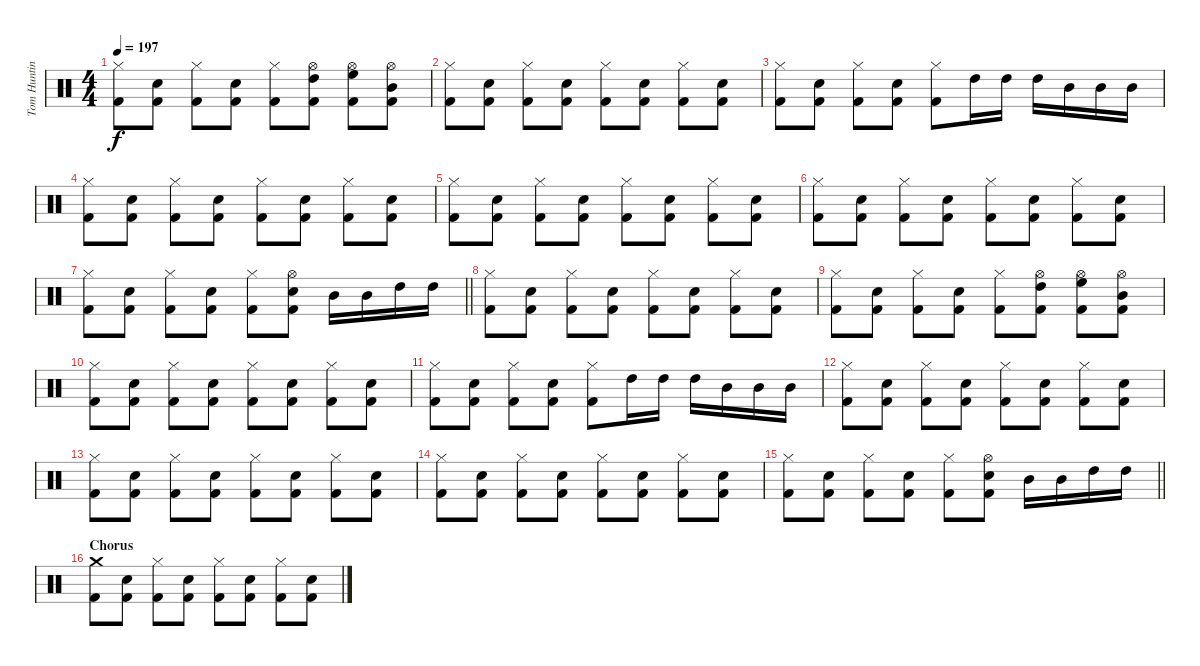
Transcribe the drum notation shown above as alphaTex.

\track ("Tom Hunting" "Tom Huntin") {instrument percussion}
\staff {score}
\articulation defaults
\ts (4 4)
\tempo 197
\clef neutral
\ks c
("Hi-Hat (closed)" "Kick (hit) 2").8{dy f} ("Snare (hit) 2" "Kick (hit) 2").8 ("Hi-Hat (closed)" "Kick (hit) 2").8 ("Snare (hit) 2" "Kick (hit) 2").8 ("Hi-Hat (closed)" "Kick (hit) 2").8 ("Hi-Hat (open)" "High Tom (hit)" "Kick (hit) 2").8 ("Hi-Hat (open)" "High Floor Tom (hit)" "Kick (hit) 2").8 ("Hi-Hat (open)" "Mid Tom (hit)" "Kick (hit) 2").8 |
("Hi-Hat (closed)" "Kick (hit) 2").8 ("Snare (hit) 2" "Kick (hit) 2").8 ("Hi-Hat (closed)" "Kick (hit) 2").8 ("Snare (hit) 2" "Kick (hit) 2").8 ("Hi-Hat (closed)" "Kick (hit) 2").8 ("Snare (hit) 2" "Kick (hit) 2").8 ("Hi-Hat (closed)" "Kick (hit) 2").8 ("Snare (hit) 2" "Kick (hit) 2").8 |
("Hi-Hat (closed)" "Kick (hit) 2").8 ("Snare (hit) 2" "Kick (hit) 2").8 ("Hi-Hat (closed)" "Kick (hit) 2").8 ("Snare (hit) 2" "Kick (hit) 2").8 ("Hi-Hat (closed)" "Kick (hit) 2").8 "High Tom (hit)".16 "High Tom (hit)".16 "High Tom (hit)".16 "Mid Tom (hit)".16 "Mid Tom (hit)".16 "Mid Tom (hit)".16 |
("Hi-Hat (closed)" "Kick (hit) 2").8 ("Snare (hit) 2" "Kick (hit) 2").8 ("Hi-Hat (closed)" "Kick (hit) 2").8 ("Snare (hit) 2" "Kick (hit) 2").8 ("Hi-Hat (closed)" "Kick (hit) 2").8 ("Snare (hit) 2" "Kick (hit) 2").8 ("Hi-Hat (closed)" "Kick (hit) 2").8 ("Snare (hit) 2" "Kick (hit) 2").8 |
("Hi-Hat (closed)" "Kick (hit) 2").8 ("Snare (hit) 2" "Kick (hit) 2").8 ("Hi-Hat (closed)" "Kick (hit) 2").8 ("Snare (hit) 2" "Kick (hit) 2").8 ("Hi-Hat (closed)" "Kick (hit) 2").8 ("Snare (hit) 2" "Kick (hit) 2").8 ("Hi-Hat (closed)" "Kick (hit) 2").8 ("Snare (hit) 2" "Kick (hit) 2").8 |
("Hi-Hat (closed)" "Kick (hit) 2").8 ("Snare (hit) 2" "Kick (hit) 2").8 ("Hi-Hat (closed)" "Kick (hit) 2").8 ("Snare (hit) 2" "Kick (hit) 2").8 ("Hi-Hat (closed)" "Kick (hit) 2").8 ("Snare (hit) 2" "Kick (hit) 2").8 ("Hi-Hat (closed)" "Kick (hit) 2").8 ("Snare (hit) 2" "Kick (hit) 2").8 |
\barLineRight lightlight
("Hi-Hat (closed)" "Kick (hit) 2").8 ("Snare (hit) 2" "Kick (hit) 2").8 ("Hi-Hat (closed)" "Kick (hit) 2").8 ("Snare (hit) 2" "Kick (hit) 2").8 ("Hi-Hat (closed)" "Kick (hit) 2").8 ("Hi-Hat (open)" "Snare (hit) 2" "Kick (hit) 2").8 "Mid Tom (hit)".16 "Mid Tom (hit)".16 "High Tom (hit)".16 "High Tom (hit)".16 |
("Hi-Hat (closed)" "Kick (hit) 2").8 ("Snare (hit) 2" "Kick (hit) 2").8 ("Hi-Hat (closed)" "Kick (hit) 2").8 ("Snare (hit) 2" "Kick (hit) 2").8 ("Hi-Hat (closed)" "Kick (hit) 2").8 ("Snare (hit) 2" "Kick (hit) 2").8 ("Hi-Hat (closed)" "Kick (hit) 2").8 ("Snare (hit) 2" "Kick (hit) 2").8 |
("Hi-Hat (closed)" "Kick (hit) 2").8 ("Snare (hit) 2" "Kick (hit) 2").8 ("Hi-Hat (closed)" "Kick (hit) 2").8 ("Snare (hit) 2" "Kick (hit) 2").8 ("Hi-Hat (closed)" "Kick (hit) 2").8 ("Hi-Hat (open)" "High Tom (hit)" "Kick (hit) 2").8 ("Hi-Hat (open)" "High Floor Tom (hit)" "Kick (hit) 2").8 ("Hi-Hat (open)" "Mid Tom (hit)" "Kick (hit) 2").8 |
("Hi-Hat (closed)" "Kick (hit) 2").8 ("Snare (hit) 2" "Kick (hit) 2").8 ("Hi-Hat (closed)" "Kick (hit) 2").8 ("Snare (hit) 2" "Kick (hit) 2").8 ("Hi-Hat (closed)" "Kick (hit) 2").8 ("Snare (hit) 2" "Kick (hit) 2").8 ("Hi-Hat (closed)" "Kick (hit) 2").8 ("Snare (hit) 2" "Kick (hit) 2").8 |
("Hi-Hat (closed)" "Kick (hit) 2").8 ("Snare (hit) 2" "Kick (hit) 2").8 ("Hi-Hat (closed)" "Kick (hit) 2").8 ("Snare (hit) 2" "Kick (hit) 2").8 ("Hi-Hat (closed)" "Kick (hit) 2").8 "High Tom (hit)".16 "High Tom (hit)".16 "High Tom (hit)".16 "Mid Tom (hit)".16 "Mid Tom (hit)".16 "Mid Tom (hit)".16 |
("Hi-Hat (closed)" "Kick (hit) 2").8 ("Snare (hit) 2" "Kick (hit) 2").8 ("Hi-Hat (closed)" "Kick (hit) 2").8 ("Snare (hit) 2" "Kick (hit) 2").8 ("Hi-Hat (closed)" "Kick (hit) 2").8 ("Snare (hit) 2" "Kick (hit) 2").8 ("Hi-Hat (closed)" "Kick (hit) 2").8 ("Snare (hit) 2" "Kick (hit) 2").8 |
("Hi-Hat (closed)" "Kick (hit) 2").8 ("Snare (hit) 2" "Kick (hit) 2").8 ("Hi-Hat (closed)" "Kick (hit) 2").8 ("Snare (hit) 2" "Kick (hit) 2").8 ("Hi-Hat (closed)" "Kick (hit) 2").8 ("Snare (hit) 2" "Kick (hit) 2").8 ("Hi-Hat (closed)" "Kick (hit) 2").8 ("Snare (hit) 2" "Kick (hit) 2").8 |
("Hi-Hat (closed)" "Kick (hit) 2").8 ("Snare (hit) 2" "Kick (hit) 2").8 ("Hi-Hat (closed)" "Kick (hit) 2").8 ("Snare (hit) 2" "Kick (hit) 2").8 ("Hi-Hat (closed)" "Kick (hit) 2").8 ("Snare (hit) 2" "Kick (hit) 2").8 ("Hi-Hat (closed)" "Kick (hit) 2").8 ("Snare (hit) 2" "Kick (hit) 2").8 |
\barLineRight lightlight
("Hi-Hat (closed)" "Kick (hit) 2").8 ("Snare (hit) 2" "Kick (hit) 2").8 ("Hi-Hat (closed)" "Kick (hit) 2").8 ("Snare (hit) 2" "Kick (hit) 2").8 ("Hi-Hat (closed)" "Kick (hit) 2").8 ("Hi-Hat (open)" "Snare (hit) 2" "Kick (hit) 2").8 "Mid Tom (hit)".16 "Mid Tom (hit)".16 "High Tom (hit)".16 "High Tom (hit)".16 |
\section ("" "Chorus")
("Crash medium (hit)" "Kick (hit) 2").8 ("Snare (hit) 2" "Kick (hit) 2").8 ("Hi-Hat (closed)" "Kick (hit) 2").8 ("Snare (hit) 2" "Kick (hit) 2").8 ("Hi-Hat (closed)" "Kick (hit) 2").8 ("Snare (hit) 2" "Kick (hit) 2").8 ("Hi-Hat (closed)" "Kick (hit) 2").8 ("Snare (hit) 2" "Kick (hit) 2").8
